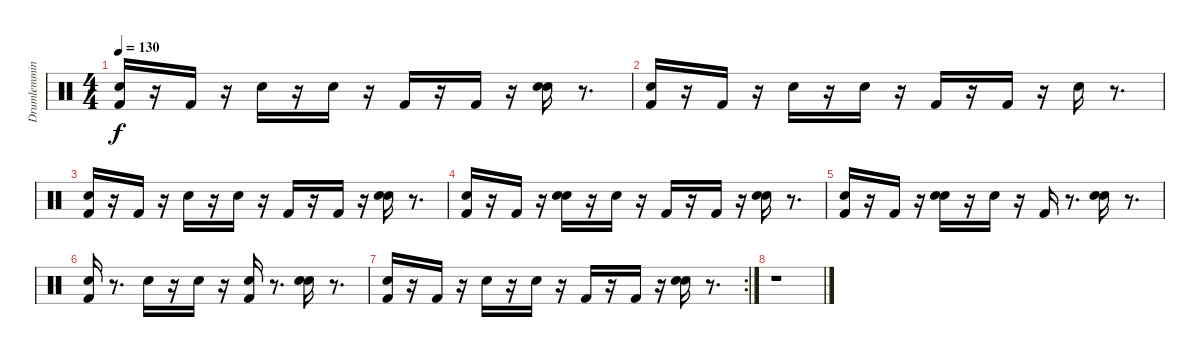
\track ("Drumlemming" "Drumlemmin") {instrument percussion}
\staff {score}
\articulation defaults
\ts (4 4)
\tempo 130
\clef neutral
\ks c
("Hand Clap (hit)" "Kick (hit) 2").16{dy f} r.16 "Kick (hit) 2".16 r.16 "Snare (hit) 2".16 r.16 "Hand Clap (hit)".16 r.16 "Kick (hit) 2".16 r.16 "Kick (hit) 2".16 r.16 ("Hand Clap (hit)" "Snare (hit) 2").16 r.8{d} |
("Hand Clap (hit)" "Kick (hit) 2").16 r.16 "Kick (hit) 2".16 r.16 "Snare (hit) 2".16 r.16 "Hand Clap (hit)".16 r.16 "Kick (hit) 2".16 r.16 "Kick (hit) 2".16 r.16 "Snare (hit) 2".16 r.8{d} |
("Hand Clap (hit)" "Kick (hit) 2").16 r.16 "Kick (hit) 2".16 r.16 "Snare (hit) 2".16 r.16 "Hand Clap (hit)".16 r.16 "Kick (hit) 2".16 r.16 "Kick (hit) 2".16 r.16 ("Hand Clap (hit)" "Snare (hit) 2").16 r.8{d} |
("Hand Clap (hit)" "Kick (hit) 2").16 r.16 "Kick (hit) 2".16 r.16 ("Hand Clap (hit)" "Snare (hit) 2").16 r.16 "Hand Clap (hit)".16 r.16 "Kick (hit) 2".16 r.16 "Kick (hit) 2".16 r.16 ("Hand Clap (hit)" "Snare (hit) 2").16 r.8{d} |
("Hand Clap (hit)" "Kick (hit) 2").16 r.16 "Kick (hit) 2".16 r.16 ("Hand Clap (hit)" "Snare (hit) 2").16 r.16 "Hand Clap (hit)".16 r.16 "Kick (hit) 2".16 r.8{d} ("Hand Clap (hit)" "Snare (hit) 2").16 r.8{d} |
("Hand Clap (hit)" "Kick (hit) 2").16 r.8{d} "Snare (hit) 2".16 r.16 "Hand Clap (hit)".16 r.16 ("Hand Clap (hit)" "Kick (hit) 2").16 r.8{d} ("Hand Clap (hit)" "Snare (hit) 2").16 r.8{d} |
\rc 2
("Hand Clap (hit)" "Kick (hit) 2").16 r.16 "Kick (hit) 2".16 r.16 "Snare (hit) 2".16 r.16 "Hand Clap (hit)".16 r.16 "Kick (hit) 2".16 r.16 "Kick (hit) 2".16 r.16 ("Hand Clap (hit)" "Snare (hit) 2").16 r.8{d} |
r.1
